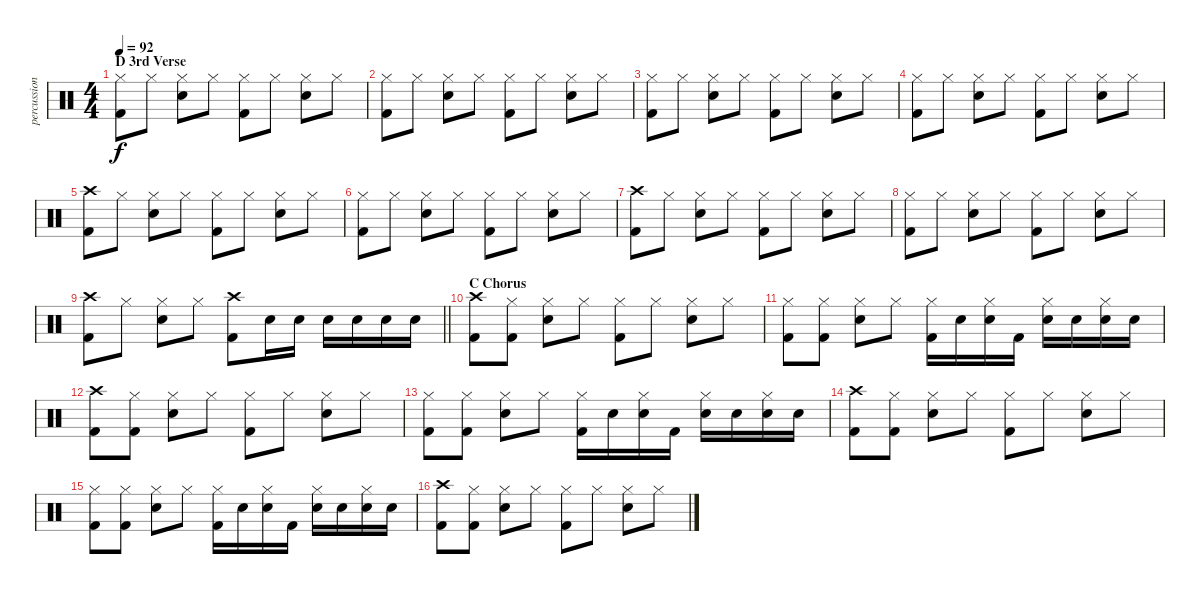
\track ("percussion" "percussion") {instrument percussion}
\staff {score}
\articulation defaults
\ts (4 4)
\section ("" "D 3rd Verse")
\tempo 92
\clef neutral
\ks c
("Hi-Hat (closed)" "Kick (hit) 2").8{dy f} "Hi-Hat (closed)".8 ("Electric Snare (hit)" "Hi-Hat (closed)").8 "Hi-Hat (closed)".8 ("Hi-Hat (closed)" "Kick (hit) 2").8 "Hi-Hat (closed)".8 ("Electric Snare (hit)" "Hi-Hat (closed)").8 "Hi-Hat (closed)".8 |
("Hi-Hat (closed)" "Kick (hit) 2").8 "Hi-Hat (closed)".8 ("Electric Snare (hit)" "Hi-Hat (closed)").8 "Hi-Hat (closed)".8 ("Hi-Hat (closed)" "Kick (hit) 2").8 "Hi-Hat (closed)".8 ("Electric Snare (hit)" "Hi-Hat (closed)").8 "Hi-Hat (closed)".8 |
("Hi-Hat (closed)" "Kick (hit) 2").8 "Hi-Hat (closed)".8 ("Electric Snare (hit)" "Hi-Hat (closed)").8 "Hi-Hat (closed)".8 ("Hi-Hat (closed)" "Kick (hit) 2").8 "Hi-Hat (closed)".8 ("Electric Snare (hit)" "Hi-Hat (closed)").8 "Hi-Hat (closed)".8 |
("Hi-Hat (closed)" "Kick (hit) 2").8 "Hi-Hat (closed)".8 ("Electric Snare (hit)" "Hi-Hat (closed)").8 "Hi-Hat (closed)".8 ("Hi-Hat (closed)" "Kick (hit) 2").8 "Hi-Hat (closed)".8 ("Electric Snare (hit)" "Hi-Hat (closed)").8 "Hi-Hat (closed)".8 |
("Crash high (hit)" "Kick (hit) 2").8 "Hi-Hat (closed)".8 ("Electric Snare (hit)" "Hi-Hat (closed)").8 "Hi-Hat (closed)".8 ("Hi-Hat (closed)" "Kick (hit) 2").8 "Hi-Hat (closed)".8 ("Electric Snare (hit)" "Hi-Hat (closed)").8 "Hi-Hat (closed)".8 |
("Hi-Hat (closed)" "Kick (hit) 2").8 "Hi-Hat (closed)".8 ("Electric Snare (hit)" "Hi-Hat (closed)").8 "Hi-Hat (closed)".8 ("Hi-Hat (closed)" "Kick (hit) 2").8 "Hi-Hat (closed)".8 ("Electric Snare (hit)" "Hi-Hat (closed)").8 "Hi-Hat (closed)".8 |
("Crash high (hit)" "Kick (hit) 2").8 "Hi-Hat (closed)".8 ("Electric Snare (hit)" "Hi-Hat (closed)").8 "Hi-Hat (closed)".8 ("Hi-Hat (closed)" "Kick (hit) 2").8 "Hi-Hat (closed)".8 ("Electric Snare (hit)" "Hi-Hat (closed)").8 "Hi-Hat (closed)".8 |
("Hi-Hat (closed)" "Kick (hit) 2").8 "Hi-Hat (closed)".8 ("Electric Snare (hit)" "Hi-Hat (closed)").8 "Hi-Hat (closed)".8 ("Hi-Hat (closed)" "Kick (hit) 2").8 "Hi-Hat (closed)".8 ("Electric Snare (hit)" "Hi-Hat (closed)").8 "Hi-Hat (closed)".8 |
\barLineRight lightlight
("Crash high (hit)" "Kick (hit) 2").8 "Hi-Hat (closed)".8 ("Electric Snare (hit)" "Hi-Hat (closed)").8 "Hi-Hat (closed)".8 ("Crash high (hit)" "Kick (hit) 2").8 "Electric Snare (hit)".16 "Electric Snare (hit)".16 "Electric Snare (hit)".16 "Electric Snare (hit)".16 "Electric Snare (hit)".16 "Electric Snare (hit)".16 |
\section ("" "C Chorus")
("Crash high (hit)" "Kick (hit) 2").8 ("Hi-Hat (closed)" "Kick (hit) 2").8 ("Electric Snare (hit)" "Hi-Hat (closed)").8 "Hi-Hat (closed)".8 ("Hi-Hat (closed)" "Kick (hit) 2").8 "Hi-Hat (closed)".8 ("Electric Snare (hit)" "Hi-Hat (closed)").8 "Hi-Hat (closed)".8 |
("Hi-Hat (closed)" "Kick (hit) 2").8 ("Hi-Hat (closed)" "Kick (hit) 2").8 ("Electric Snare (hit)" "Hi-Hat (closed)").8 "Hi-Hat (closed)".8 ("Hi-Hat (closed)" "Kick (hit) 2").16 "Electric Snare (hit)".16 ("Electric Snare (hit)" "Hi-Hat (closed)").16 "Kick (hit) 2".16 ("Electric Snare (hit)" "Hi-Hat (closed)").16 "Electric Snare (hit)".16 ("Electric Snare (hit)" "Hi-Hat (closed)").16 "Electric Snare (hit)".16 |
("Crash high (hit)" "Kick (hit) 2").8 ("Hi-Hat (closed)" "Kick (hit) 2").8 ("Electric Snare (hit)" "Hi-Hat (closed)").8 "Hi-Hat (closed)".8 ("Hi-Hat (closed)" "Kick (hit) 2").8 "Hi-Hat (closed)".8 ("Electric Snare (hit)" "Hi-Hat (closed)").8 "Hi-Hat (closed)".8 |
("Hi-Hat (closed)" "Kick (hit) 2").8 ("Hi-Hat (closed)" "Kick (hit) 2").8 ("Electric Snare (hit)" "Hi-Hat (closed)").8 "Hi-Hat (closed)".8 ("Hi-Hat (closed)" "Kick (hit) 2").16 "Electric Snare (hit)".16 ("Electric Snare (hit)" "Hi-Hat (closed)").16 "Kick (hit) 2".16 ("Electric Snare (hit)" "Hi-Hat (closed)").16 "Electric Snare (hit)".16 ("Electric Snare (hit)" "Hi-Hat (closed)").16 "Electric Snare (hit)".16 |
("Crash high (hit)" "Kick (hit) 2").8 ("Hi-Hat (closed)" "Kick (hit) 2").8 ("Electric Snare (hit)" "Hi-Hat (closed)").8 "Hi-Hat (closed)".8 ("Hi-Hat (closed)" "Kick (hit) 2").8 "Hi-Hat (closed)".8 ("Electric Snare (hit)" "Hi-Hat (closed)").8 "Hi-Hat (closed)".8 |
("Hi-Hat (closed)" "Kick (hit) 2").8 ("Hi-Hat (closed)" "Kick (hit) 2").8 ("Electric Snare (hit)" "Hi-Hat (closed)").8 "Hi-Hat (closed)".8 ("Hi-Hat (closed)" "Kick (hit) 2").16 "Electric Snare (hit)".16 ("Electric Snare (hit)" "Hi-Hat (closed)").16 "Kick (hit) 2".16 ("Electric Snare (hit)" "Hi-Hat (closed)").16 "Electric Snare (hit)".16 ("Electric Snare (hit)" "Hi-Hat (closed)").16 "Electric Snare (hit)".16 |
("Crash high (hit)" "Kick (hit) 2").8 ("Hi-Hat (closed)" "Kick (hit) 2").8 ("Electric Snare (hit)" "Hi-Hat (closed)").8 "Hi-Hat (closed)".8 ("Hi-Hat (closed)" "Kick (hit) 2").8 "Hi-Hat (closed)".8 ("Electric Snare (hit)" "Hi-Hat (closed)").8 "Hi-Hat (closed)".8
